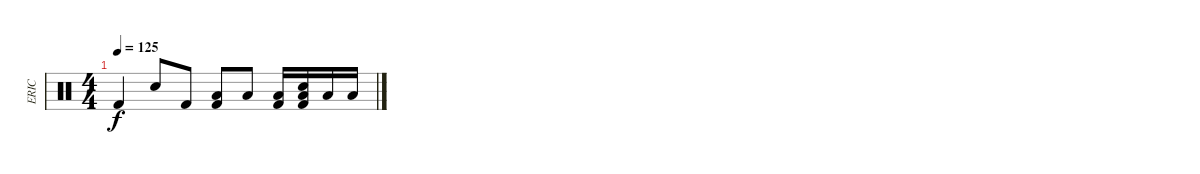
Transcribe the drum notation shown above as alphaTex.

\track ("ERIC" "ERIC") {instrument percussion}
\staff {score}
\articulation defaults
\ts (4 4)
\tempo 125
\clef neutral
\ks c "Kick (hit) 2".4{dy f} "Electric Snare (hit)".8 "Kick (hit) 2".8
("Low Floor Tom (hit)" "Kick (hit) 2").8 "Low Floor Tom (hit)".8 ("Low Floor Tom (hit)" "Kick (hit) 2").16 ("Electric Snare (hit)" "Low Floor Tom (hit)" "Kick (hit) 2").16 "Low Tom (hit)".16 "Low Floor Tom (hit)".16
